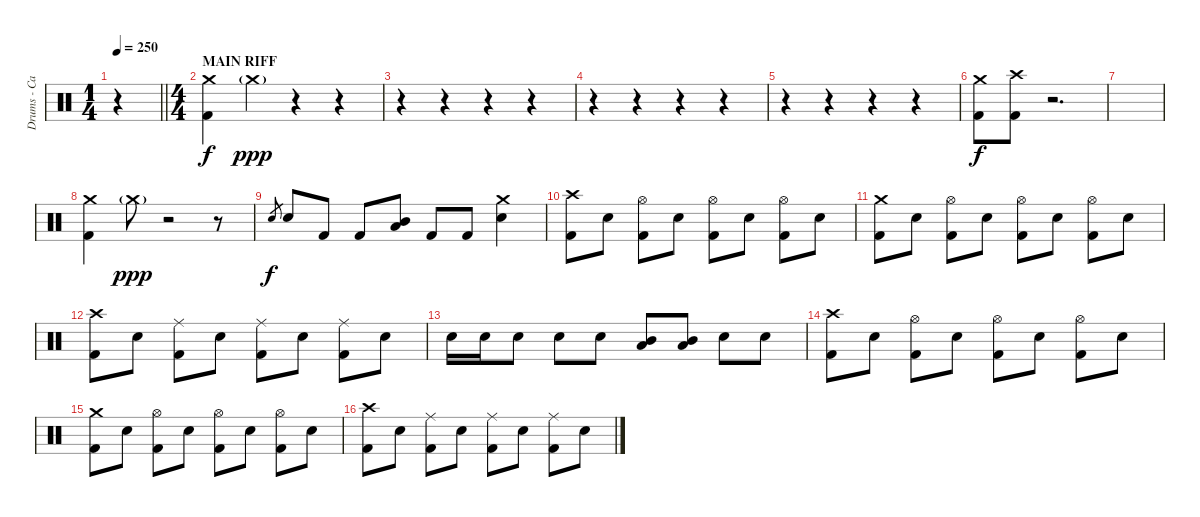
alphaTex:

\track ("Drums - Carlos Cruz" "Drums - Ca") {instrument percussion}
\staff {score}
\articulation defaults
\ts (1 4)
\tempo 250
\clef neutral
\barLineRight lightlight
\ks c
r.4{dy f} |
\ts (4 4)
\section ("" "MAIN RIFF")
("Crash medium (hit)" "Kick (hit) 2").4 "Crash medium (hit)"{g}.4{dy ppp} r.4 r.4 |
r.4 r.4 r.4 r.4 |
r.4 r.4 r.4 r.4 |
r.4 r.4 r.4 r.4 |
("Crash medium (hit)" "Kick (hit) 2").8{dy f} ("Crash high (hit)" "Kick (hit) 2").8 r.2{d} |
|
("Crash medium (hit)" "Kick (hit) 2").4 "Crash medium (hit)"{g}.8{dy ppp} r.2 r.8 |
"Snare (hit) 2".8{gr dy f} "Snare (hit) 2".8 "Kick (hit) 2".8 "Kick (hit) 2".8 ("Mid Tom (hit)" "Low Tom (hit)").8 "Kick (hit) 2".8 "Kick (hit) 2".8 ("Crash medium (hit)" "Snare (hit) 2").4 |
("Crash high (hit)" "Kick (hit) 2").8 "Snare (hit) 2".8 ("Hi-Hat (open)" "Kick (hit) 2").8 "Snare (hit) 2".8 ("Hi-Hat (open)" "Kick (hit) 2").8 "Snare (hit) 2".8 ("Hi-Hat (open)" "Kick (hit) 2").8 "Snare (hit) 2".8 |
("Crash medium (hit)" "Kick (hit) 2").8 "Snare (hit) 2".8 ("Hi-Hat (open)" "Kick (hit) 2").8 "Snare (hit) 2".8 ("Hi-Hat (open)" "Kick (hit) 2").8 "Snare (hit) 2".8 ("Hi-Hat (open)" "Kick (hit) 2").8 "Snare (hit) 2".8 |
("Crash high (hit)" "Kick (hit) 2").8 "Snare (hit) 2".8 ("Ride (middle)" "Kick (hit) 2").8 "Snare (hit) 2".8 ("Ride (middle)" "Kick (hit) 2").8 "Snare (hit) 2".8 ("Ride (middle)" "Kick (hit) 2").8 "Snare (hit) 2".8 |
"Snare (hit) 2".16 "Snare (hit) 2".16 "Snare (hit) 2".8 "Snare (hit) 2".8 "Snare (hit) 2".8 ("Mid Tom (hit)" "Low Tom (hit)").8 ("Mid Tom (hit)" "Low Tom (hit)").8 "Snare (hit) 2".8 "Snare (hit) 2".8 |
("Crash high (hit)" "Kick (hit) 2").8 "Snare (hit) 2".8 ("Hi-Hat (open)" "Kick (hit) 2").8 "Snare (hit) 2".8 ("Hi-Hat (open)" "Kick (hit) 2").8 "Snare (hit) 2".8 ("Hi-Hat (open)" "Kick (hit) 2").8 "Snare (hit) 2".8 |
("Crash medium (hit)" "Kick (hit) 2").8 "Snare (hit) 2".8 ("Hi-Hat (open)" "Kick (hit) 2").8 "Snare (hit) 2".8 ("Hi-Hat (open)" "Kick (hit) 2").8 "Snare (hit) 2".8 ("Hi-Hat (open)" "Kick (hit) 2").8 "Snare (hit) 2".8 |
("Crash high (hit)" "Kick (hit) 2").8 "Snare (hit) 2".8 ("Ride (middle)" "Kick (hit) 2").8 "Snare (hit) 2".8 ("Ride (middle)" "Kick (hit) 2").8 "Snare (hit) 2".8 ("Ride (middle)" "Kick (hit) 2").8 "Snare (hit) 2".8
